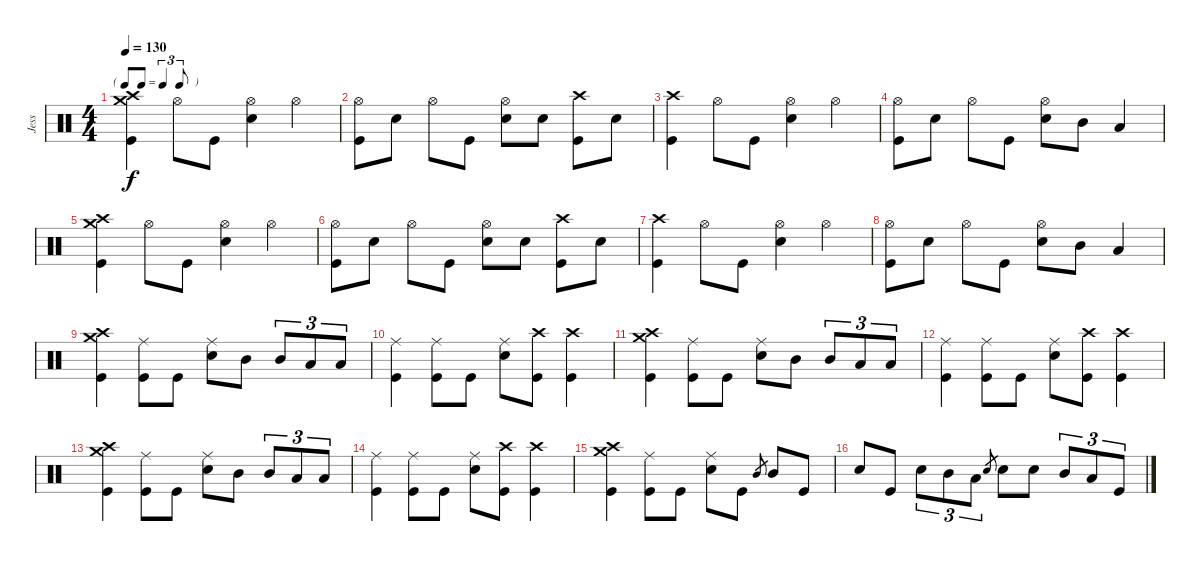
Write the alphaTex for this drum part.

\track ("Jess" "Jess") {instrument percussion}
\staff {score}
\articulation defaults
\ts (4 4)
\tf triplet8th
\tempo 130
\clef neutral
\ks c
("Crash high (hit)" "Crash medium (hit)" "Kick (hit)").4{dy f} "Hi-Hat (open)".8 "Kick (hit)".8 ("Hi-Hat (open)" "Snare (hit) 2").4 "Hi-Hat (open)".4 |
("Hi-Hat (open)" "Kick (hit)").8 "Snare (hit) 2".8 "Hi-Hat (open)".8 "Kick (hit)".8 ("Hi-Hat (open)" "Snare (hit) 2").8 "Snare (hit) 2".8 ("Crash high (hit)" "Kick (hit)").8 "Snare (hit) 2".8 |
("Crash high (hit)" "Kick (hit)").4 "Hi-Hat (open)".8 "Kick (hit)".8 ("Hi-Hat (open)" "Snare (hit) 2").4 "Hi-Hat (open)".4 |
("Hi-Hat (open)" "Kick (hit)").8 "Snare (hit) 2".8 "Hi-Hat (open)".8 "Kick (hit)".8 ("Hi-Hat (open)" "Snare (hit) 2").8 "Mid Tom (hit)".8 "Low Tom (hit)".4 |
("Crash high (hit)" "Crash medium (hit)" "Kick (hit)").4 "Hi-Hat (open)".8 "Kick (hit)".8 ("Hi-Hat (open)" "Snare (hit) 2").4 "Hi-Hat (open)".4 |
("Hi-Hat (open)" "Kick (hit)").8 "Snare (hit) 2".8 "Hi-Hat (open)".8 "Kick (hit)".8 ("Hi-Hat (open)" "Snare (hit) 2").8 "Snare (hit) 2".8 ("Crash high (hit)" "Kick (hit)").8 "Snare (hit) 2".8 |
("Crash high (hit)" "Kick (hit)").4 "Hi-Hat (open)".8 "Kick (hit)".8 ("Hi-Hat (open)" "Snare (hit) 2").4 "Hi-Hat (open)".4 |
("Hi-Hat (open)" "Kick (hit)").8 "Snare (hit) 2".8 "Hi-Hat (open)".8 "Kick (hit)".8 ("Hi-Hat (open)" "Snare (hit) 2").8 "Mid Tom (hit)".8 "Low Tom (hit)".4 |
("Crash high (hit)" "Crash medium (hit)" "Kick (hit)").4 ("Ride (middle)" "Kick (hit)").8 "Kick (hit)".8 ("Ride (middle)" "Snare (hit) 2").8 "Mid Tom (hit)".8 "Mid Tom (hit)".8{tu (3 2)} "Low Tom (hit)".8{tu (3 2)} "Low Tom (hit)".8{tu (3 2)} |
("Ride (middle)" "Kick (hit)").4 ("Ride (middle)" "Kick (hit)").8 "Kick (hit)".8 ("Ride (middle)" "Snare (hit) 2").8 ("Crash high (hit)" "Kick (hit)").8 ("Crash high (hit)" "Kick (hit)").4 |
("Crash high (hit)" "Crash medium (hit)" "Kick (hit)").4 ("Ride (middle)" "Kick (hit)").8 "Kick (hit)".8 ("Ride (middle)" "Snare (hit) 2").8 "Mid Tom (hit)".8 "Mid Tom (hit)".8{tu (3 2)} "Low Tom (hit)".8{tu (3 2)} "Low Tom (hit)".8{tu (3 2)} |
("Ride (middle)" "Kick (hit)").4 ("Ride (middle)" "Kick (hit)").8 "Kick (hit)".8 ("Ride (middle)" "Snare (hit) 2").8 ("Crash high (hit)" "Kick (hit)").8 ("Crash high (hit)" "Kick (hit)").4 |
("Crash high (hit)" "Crash medium (hit)" "Kick (hit)").4 ("Ride (middle)" "Kick (hit)").8 "Kick (hit)".8 ("Ride (middle)" "Snare (hit) 2").8 "Mid Tom (hit)".8 "Mid Tom (hit)".8{tu (3 2)} "Low Tom (hit)".8{tu (3 2)} "Low Tom (hit)".8{tu (3 2)} |
("Ride (middle)" "Kick (hit)").4 ("Ride (middle)" "Kick (hit)").8 "Kick (hit)".8 ("Ride (middle)" "Snare (hit) 2").8 ("Crash high (hit)" "Kick (hit)").8 ("Crash high (hit)" "Kick (hit)").4 |
("Crash high (hit)" "Crash medium (hit)" "Kick (hit)").4 ("Ride (middle)" "Kick (hit)").8 "Kick (hit)".8 ("Ride (middle)" "Snare (hit) 2").8 "Kick (hit)".8 "Mid Tom (hit)".8{gr} "Mid Tom (hit)".8 "Kick (hit)".8 |
"Snare (hit) 2".8 "Kick (hit)".8 "Snare (hit) 2".8{tu (3 2)} "Mid Tom (hit)".8{tu (3 2)} "Low Tom (hit)".8{tu (3 2)} "Snare (hit) 2".8{gr} "Snare (hit) 2".8 "Snare (hit) 2".8 "Mid Tom (hit)".8{tu (3 2)} "Low Tom (hit)".8{tu (3 2)} "Kick (hit)".8{tu (3 2)}
